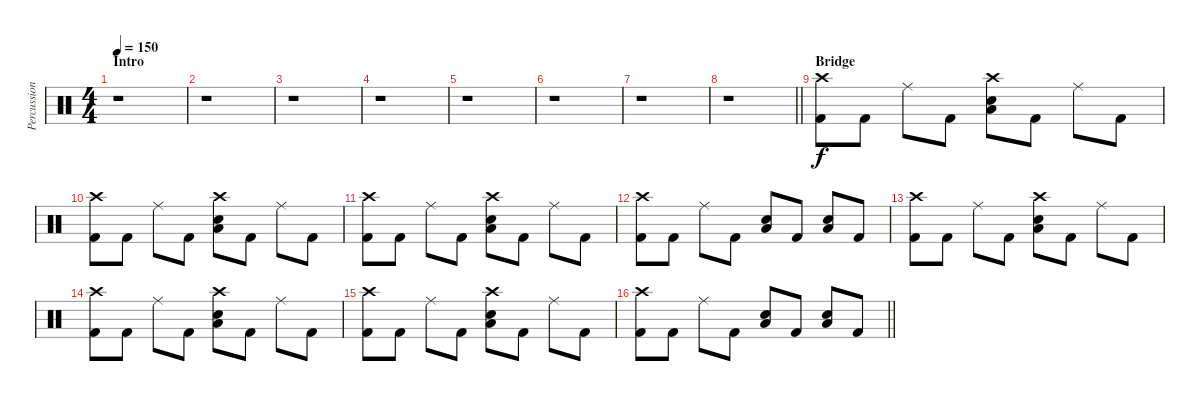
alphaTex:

\track ("Percussion" "Percussion") {instrument percussion}
\staff {score}
\articulation defaults
\ts (4 4)
\section ("" "Intro")
\tempo 150
\clef neutral
\ks c
r.1{dy f} |
r.1 |
r.1 |
r.1 |
r.1 |
r.1 |
r.1 |
\barLineRight lightlight
r.1 |
\section ("" "Bridge")
("Crash high (hit)" "Kick (hit) 2").8 "Kick (hit) 2".8 "Ride (middle)".8 "Kick (hit) 2".8 ("Crash high (hit)" "Low Tom (hit)" "Snare (hit) 2").8 "Kick (hit) 2".8 "Ride (middle)".8 "Kick (hit) 2".8 |
("Crash high (hit)" "Kick (hit) 2").8 "Kick (hit) 2".8 "Ride (middle)".8 "Kick (hit) 2".8 ("Crash high (hit)" "Low Tom (hit)" "Snare (hit) 2").8 "Kick (hit) 2".8 "Ride (middle)".8 "Kick (hit) 2".8 |
("Crash high (hit)" "Kick (hit) 2").8 "Kick (hit) 2".8 "Ride (middle)".8 "Kick (hit) 2".8 ("Crash high (hit)" "Low Tom (hit)" "Snare (hit) 2").8 "Kick (hit) 2".8 "Ride (middle)".8 "Kick (hit) 2".8 |
("Crash high (hit)" "Kick (hit) 2").8 "Kick (hit) 2".8 "Ride (middle)".8 "Kick (hit) 2".8 ("Low Tom (hit)" "Snare (hit) 2").8 "Kick (hit) 2".8 ("Low Tom (hit)" "Snare (hit) 2").8 "Kick (hit) 2".8 |
("Crash high (hit)" "Kick (hit) 2").8 "Kick (hit) 2".8 "Ride (middle)".8 "Kick (hit) 2".8 ("Crash high (hit)" "Low Tom (hit)" "Snare (hit) 2").8 "Kick (hit) 2".8 "Ride (middle)".8 "Kick (hit) 2".8 |
("Crash high (hit)" "Kick (hit) 2").8 "Kick (hit) 2".8 "Ride (middle)".8 "Kick (hit) 2".8 ("Crash high (hit)" "Low Tom (hit)" "Snare (hit) 2").8 "Kick (hit) 2".8 "Ride (middle)".8 "Kick (hit) 2".8 |
("Crash high (hit)" "Kick (hit) 2").8 "Kick (hit) 2".8 "Ride (middle)".8 "Kick (hit) 2".8 ("Crash high (hit)" "Low Tom (hit)" "Snare (hit) 2").8 "Kick (hit) 2".8 "Ride (middle)".8 "Kick (hit) 2".8 |
\barLineRight lightlight
("Crash high (hit)" "Kick (hit) 2").8 "Kick (hit) 2".8 "Ride (middle)".8 "Kick (hit) 2".8 ("Low Tom (hit)" "Snare (hit) 2").8 "Kick (hit) 2".8 ("Low Tom (hit)" "Snare (hit) 2").8 "Kick (hit) 2".8
